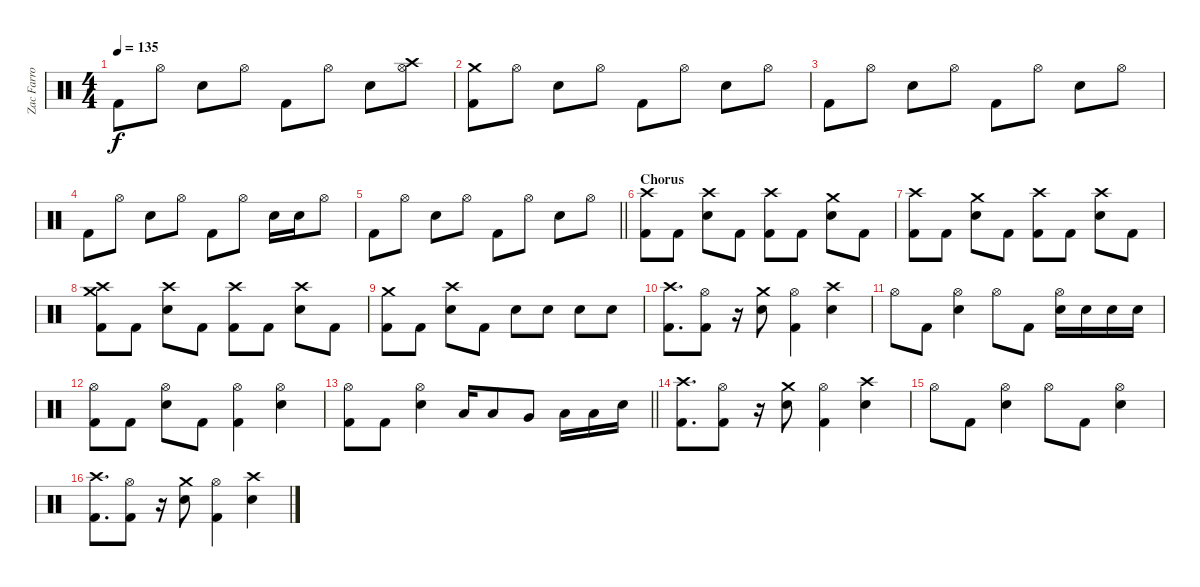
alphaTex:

\track ("Zac Farro" "Zac Farro") {instrument percussion}
\staff {score}
\articulation defaults
\ts (4 4)
\tempo 135
\clef neutral
\ks c "Kick (hit) 2".8{dy f} "Hi-Hat (open)".8 "Electric Snare (hit)".8 "Hi-Hat (open)".8 "Kick (hit) 2".8 "Hi-Hat (open)".8 "Electric Snare (hit)".8
("Crash high (hit)" "Hi-Hat (open)").8 |
("Crash medium (hit)" "Kick (hit) 2").8 "Hi-Hat (open)".8 "Electric Snare (hit)".8 "Hi-Hat (open)".8 "Kick (hit) 2".8 "Hi-Hat (open)".8 "Electric Snare (hit)".8 "Hi-Hat (open)".8 |
"Kick (hit) 2".8 "Hi-Hat (open)".8 "Electric Snare (hit)".8 "Hi-Hat (open)".8 "Kick (hit) 2".8 "Hi-Hat (open)".8 "Electric Snare (hit)".8 "Hi-Hat (open)".8 |
"Kick (hit) 2".8 "Hi-Hat (open)".8 "Electric Snare (hit)".8 "Hi-Hat (open)".8 "Kick (hit) 2".8 "Hi-Hat (open)".8 "Electric Snare (hit)".16 "Electric Snare (hit)".16 "Hi-Hat (open)".8 |
\barLineRight lightlight "Kick (hit) 2".8 "Hi-Hat (open)".8 "Electric Snare (hit)".8 "Hi-Hat (open)".8 "Kick (hit) 2".8 "Hi-Hat (open)".8 "Electric Snare (hit)".8 "Hi-Hat (open)".8
|
\section ("" "Chorus")
("Crash high (hit)" "Kick (hit) 2").8 "Kick (hit) 2".8 ("Crash high (hit)" "Electric Snare (hit)").8 "Kick (hit) 2".8 ("Crash high (hit)" "Kick (hit) 2").8 "Kick (hit) 2".8 ("Crash medium (hit)" "Electric Snare (hit)").8 "Kick (hit) 2".8 |
("Crash high (hit)" "Kick (hit) 2").8 "Kick (hit) 2".8 ("Crash medium (hit)" "Electric Snare (hit)").8 "Kick (hit) 2".8 ("Crash high (hit)" "Kick (hit) 2").8 "Kick (hit) 2".8 ("Crash high (hit)" "Electric Snare (hit)").8 "Kick (hit) 2".8 |
("Crash medium (hit)" "Crash high (hit)" "Kick (hit) 2").8 "Kick (hit) 2".8 ("Crash high (hit)" "Electric Snare (hit)").8 "Kick (hit) 2".8 ("Crash high (hit)" "Kick (hit) 2").8 "Kick (hit) 2".8 ("Crash high (hit)" "Electric Snare (hit)").8 "Kick (hit) 2".8 |
("Crash medium (hit)" "Kick (hit) 2").8 "Kick (hit) 2".8 ("Crash high (hit)" "Electric Snare (hit)").8 "Kick (hit) 2".8 "Electric Snare (hit)".8 "Electric Snare (hit)".8 "Electric Snare (hit)".8 "Electric Snare (hit)".8 |
("Crash high (hit)" "Kick (hit) 2").8{d} ("Hi-Hat (open)" "Kick (hit) 2").8 r.16 ("Crash medium (hit)" "Electric Snare (hit)").8 ("Hi-Hat (open)" "Kick (hit) 2").4 ("Crash high (hit)" "Electric Snare (hit)").4 |
"Hi-Hat (open)".8 "Kick (hit) 2".8 ("Hi-Hat (open)" "Electric Snare (hit)").4 "Hi-Hat (open)".8 "Kick (hit) 2".8 ("Hi-Hat (open)" "Electric Snare (hit)").16 "Electric Snare (hit)".16 "Electric Snare (hit)".16 "Electric Snare (hit)".16 |
("Hi-Hat (open)" "Kick (hit) 2").8 "Kick (hit) 2".8 ("Hi-Hat (open)" "Electric Snare (hit)").8 "Kick (hit) 2".8 ("Hi-Hat (open)" "Kick (hit) 2").4 ("Hi-Hat (open)" "Electric Snare (hit)").4 |
\barLineRight lightlight
("Hi-Hat (open)" "Kick (hit) 2").8 "Kick (hit) 2".8 ("Hi-Hat (open)" "Electric Snare (hit)").4 "Low Tom (hit)".16 "Low Tom (hit)".8 "Very Low Tom (hit)".8 "Low Floor Tom (hit)".16 "Low Floor Tom (hit)".16 "Electric Snare (hit)".16 |
("Crash high (hit)" "Kick (hit) 2").8{d} ("Hi-Hat (open)" "Kick (hit) 2").8 r.16 ("Crash medium (hit)" "Electric Snare (hit)").8 ("Hi-Hat (open)" "Kick (hit) 2").4 ("Crash high (hit)" "Electric Snare (hit)").4 |
"Hi-Hat (open)".8 "Kick (hit) 2".8 ("Hi-Hat (open)" "Electric Snare (hit)").4 "Hi-Hat (open)".8 "Kick (hit) 2".8 ("Hi-Hat (open)" "Electric Snare (hit)").4 |
("Crash high (hit)" "Kick (hit) 2").8{d} ("Hi-Hat (open)" "Kick (hit) 2").8 r.16 ("Crash medium (hit)" "Electric Snare (hit)").8 ("Hi-Hat (open)" "Kick (hit) 2").4 ("Crash high (hit)" "Electric Snare (hit)").4
